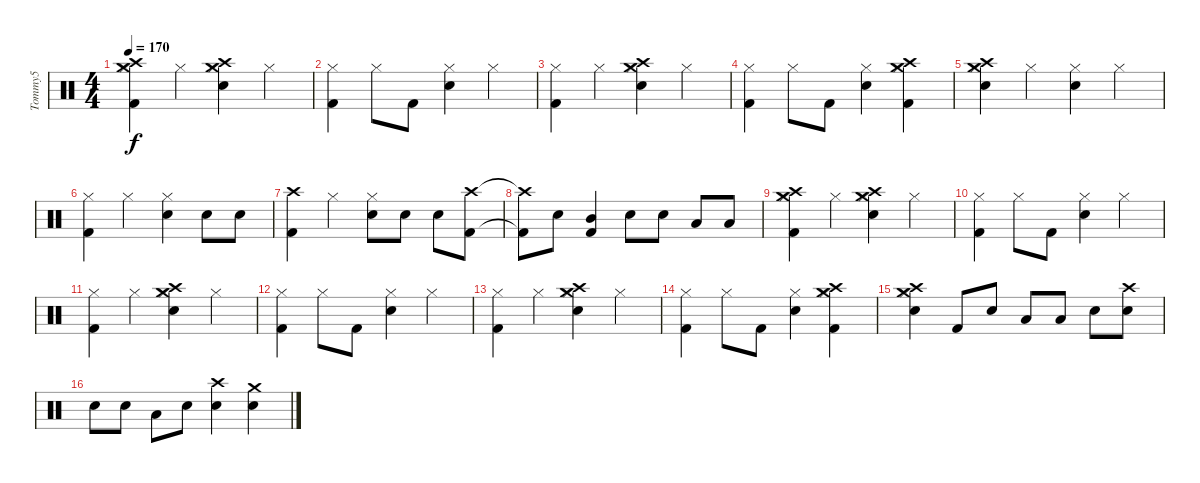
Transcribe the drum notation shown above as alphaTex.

\track ("Tommy5" "Tommy5") {instrument percussion}
\staff {score}
\articulation defaults
\ts (4 4)
\tempo 170
\clef neutral
\ks c
("Hi-Hat (closed)" "Kick (hit) 2" "Crash high (hit)" "Crash medium (hit)").4{dy f} "Hi-Hat (closed)".4 ("Hi-Hat (closed)" "Electric Snare (hit)" "Crash high (hit)" "Crash medium (hit)").4 "Hi-Hat (closed)".4 |
("Hi-Hat (closed)" "Kick (hit) 2").4 "Hi-Hat (closed)".8 "Kick (hit) 2".8 ("Hi-Hat (closed)" "Electric Snare (hit)").4 "Hi-Hat (closed)".4 |
("Hi-Hat (closed)" "Kick (hit) 2").4 "Hi-Hat (closed)".4 ("Hi-Hat (closed)" "Electric Snare (hit)" "Crash high (hit)" "Crash medium (hit)").4 "Hi-Hat (closed)".4 |
("Hi-Hat (closed)" "Kick (hit) 2").4 "Hi-Hat (closed)".8 "Kick (hit) 2".8 ("Hi-Hat (closed)" "Electric Snare (hit)").4 ("Hi-Hat (closed)" "Kick (hit) 2" "Crash high (hit)" "Crash medium (hit)").4 |
("Hi-Hat (closed)" "Electric Snare (hit)" "Crash high (hit)" "Crash medium (hit)").4 "Hi-Hat (closed)".4 ("Hi-Hat (closed)" "Electric Snare (hit)").4 "Hi-Hat (closed)".4 |
("Hi-Hat (closed)" "Kick (hit) 2").4 "Hi-Hat (closed)".4 ("Hi-Hat (closed)" "Electric Snare (hit)").4 "Electric Snare (hit)".8 "Electric Snare (hit)".8 |
("Crash high (hit)" "Kick (hit) 2").4 "Hi-Hat (closed)".4 ("Hi-Hat (closed)" "Electric Snare (hit)").8 "Electric Snare (hit)".8 "Electric Snare (hit)".8 ("Kick (hit) 2" "Crash high (hit)").8 |
("Kick (hit) 2"{t} "Crash high (hit)"{t}).8 "Electric Snare (hit)".8 ("Kick (hit) 2" "Mid Tom (hit)").4 "Electric Snare (hit)".8 "Electric Snare (hit)".8 "Low Tom (hit)".8 "Low Tom (hit)".8 |
("Hi-Hat (closed)" "Kick (hit) 2" "Crash high (hit)" "Crash medium (hit)").4 "Hi-Hat (closed)".4 ("Hi-Hat (closed)" "Electric Snare (hit)" "Crash high (hit)" "Crash medium (hit)").4 "Hi-Hat (closed)".4 |
("Hi-Hat (closed)" "Kick (hit) 2").4 "Hi-Hat (closed)".8 "Kick (hit) 2".8 ("Hi-Hat (closed)" "Electric Snare (hit)").4 "Hi-Hat (closed)".4 |
("Hi-Hat (closed)" "Kick (hit) 2").4 "Hi-Hat (closed)".4 ("Hi-Hat (closed)" "Electric Snare (hit)" "Crash high (hit)" "Crash medium (hit)").4 "Hi-Hat (closed)".4 |
("Hi-Hat (closed)" "Kick (hit) 2").4 "Hi-Hat (closed)".8 "Kick (hit) 2".8 ("Hi-Hat (closed)" "Electric Snare (hit)").4 "Hi-Hat (closed)".4 |
("Hi-Hat (closed)" "Kick (hit) 2").4 "Hi-Hat (closed)".4 ("Hi-Hat (closed)" "Electric Snare (hit)" "Crash high (hit)" "Crash medium (hit)").4 "Hi-Hat (closed)".4 |
("Hi-Hat (closed)" "Kick (hit) 2").4 "Hi-Hat (closed)".8 "Kick (hit) 2".8 ("Hi-Hat (closed)" "Electric Snare (hit)").4 ("Hi-Hat (closed)" "Kick (hit) 2" "Crash high (hit)" "Crash medium (hit)").4 |
("Hi-Hat (closed)" "Electric Snare (hit)" "Crash high (hit)" "Crash medium (hit)").4 "Kick (hit) 2".8 "Electric Snare (hit)".8 "Low Tom (hit)".8 "Low Tom (hit)".8 "Electric Snare (hit)".8 ("Electric Snare (hit)" "Crash high (hit)").8 |
"Electric Snare (hit)".8 "Electric Snare (hit)".8 "Low Tom (hit)".8 "Snare (hit) 2".8 ("Electric Snare (hit)" "Crash high (hit)").4 ("Electric Snare (hit)" "Crash medium (hit)").4
